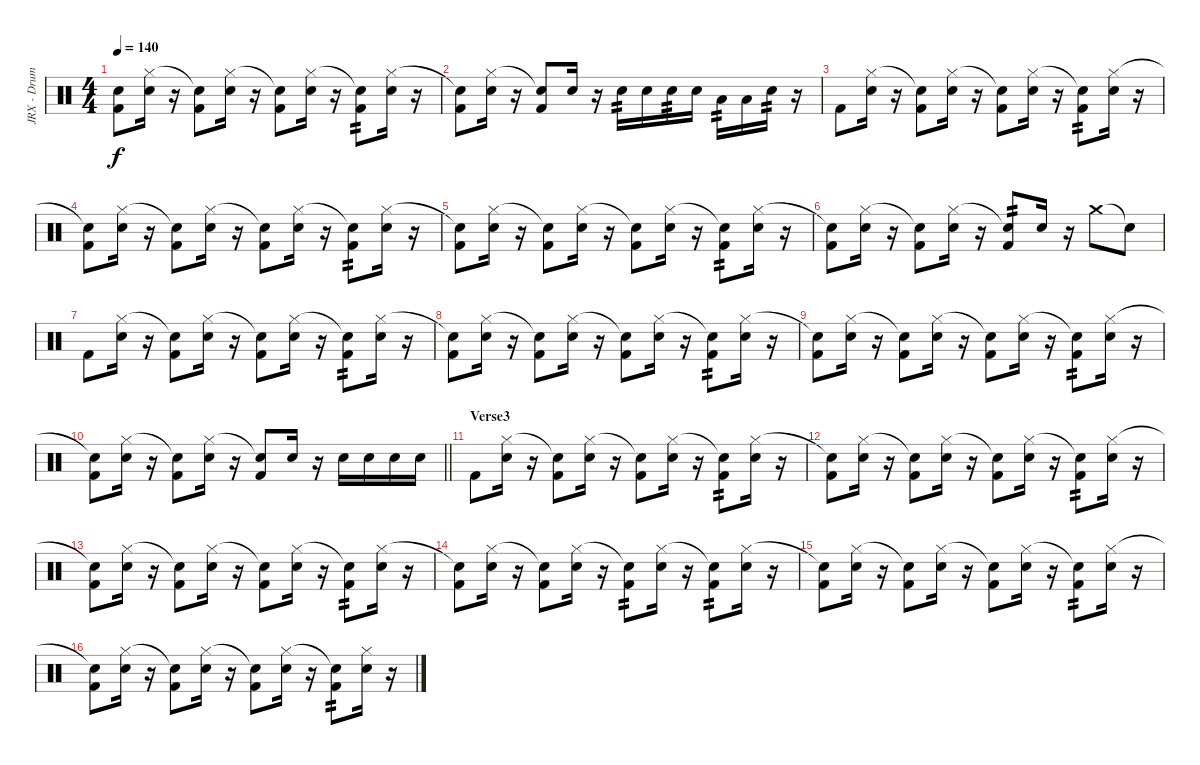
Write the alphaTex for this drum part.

\track ("JRX - Drum" "JRX - Drum") {instrument percussion}
\staff {score}
\articulation defaults
\ts (4 4)
\tempo 140
\clef neutral
\ks c
("Snare (hit)"{t} "Kick (hit) 2").8{dy f} ("Hi-Hat (closed)" "Electric Snare (hit)").16 r.16 ("Snare (hit)"{t} "Kick (hit) 2").8 ("Hi-Hat (closed)" "Electric Snare (hit)").16 r.16 ("Snare (hit)"{t} "Kick (hit) 2").8 ("Hi-Hat (closed)" "Electric Snare (hit)").16 r.16 ("Snare (hit)"{t} "Kick (hit) 2").8{tp 2} ("Hi-Hat (closed)" "Electric Snare (hit)").16 r.16 |
("Snare (hit)"{t} "Kick (hit) 2").8 ("Hi-Hat (closed)" "Electric Snare (hit)").16 r.16 ("Snare (hit)"{t} "Kick (hit) 2").8 "Electric Snare (hit)".16 r.16 "Electric Snare (hit)".16{tp 2} "Electric Snare (hit)".16 "Electric Snare (hit)".16{tp 2} "Electric Snare (hit)".16 "Low Floor Tom (hit)".16{tp 2} "Low Floor Tom (hit)".16 "Electric Snare (hit)".16{tp 2} r.16 |
"Kick (hit) 2".8 ("Hi-Hat (closed)" "Electric Snare (hit)").16 r.16 ("Snare (hit)"{t} "Kick (hit) 2").8 ("Hi-Hat (closed)" "Electric Snare (hit)").16 r.16 ("Snare (hit)"{t} "Kick (hit) 2").8 ("Hi-Hat (closed)" "Electric Snare (hit)").16 r.16 ("Snare (hit)"{t} "Kick (hit) 2").8{tp 2} ("Hi-Hat (closed)" "Electric Snare (hit)").16 r.16 |
("Snare (hit)"{t} "Kick (hit) 2").8 ("Hi-Hat (closed)" "Electric Snare (hit)").16 r.16 ("Snare (hit)"{t} "Kick (hit) 2").8 ("Hi-Hat (closed)" "Electric Snare (hit)").16 r.16 ("Snare (hit)"{t} "Kick (hit) 2").8 ("Hi-Hat (closed)" "Electric Snare (hit)").16 r.16 ("Snare (hit)"{t} "Kick (hit) 2").8{tp 2} ("Hi-Hat (closed)" "Electric Snare (hit)").16 r.16 |
("Snare (hit)"{t} "Kick (hit) 2").8 ("Hi-Hat (closed)" "Electric Snare (hit)").16 r.16 ("Snare (hit)"{t} "Kick (hit) 2").8 ("Hi-Hat (closed)" "Electric Snare (hit)").16 r.16 ("Snare (hit)"{t} "Kick (hit) 2").8 ("Hi-Hat (closed)" "Electric Snare (hit)").16 r.16 ("Snare (hit)"{t} "Kick (hit) 2").8{tp 2} ("Hi-Hat (closed)" "Electric Snare (hit)").16 r.16 |
("Snare (hit)"{t} "Kick (hit) 2").8 ("Hi-Hat (closed)" "Electric Snare (hit)").16 r.16 ("Snare (hit)"{t} "Kick (hit) 2").8 ("Hi-Hat (closed)" "Electric Snare (hit)").16 r.16 ("Snare (hit)"{t} "Kick (hit) 2").8{tp 2} "Electric Snare (hit)".16 r.16 "Crash medium (hit)".8 "Snare (hit)"{t}.8 |
"Kick (hit) 2".8 ("Hi-Hat (closed)" "Electric Snare (hit)").16 r.16 ("Snare (hit)"{t} "Kick (hit) 2").8 ("Hi-Hat (closed)" "Electric Snare (hit)").16 r.16 ("Snare (hit)"{t} "Kick (hit) 2").8 ("Hi-Hat (closed)" "Electric Snare (hit)").16 r.16 ("Snare (hit)"{t} "Kick (hit) 2").8{tp 2} ("Hi-Hat (closed)" "Electric Snare (hit)").16 r.16 |
("Snare (hit)"{t} "Kick (hit) 2").8 ("Hi-Hat (closed)" "Electric Snare (hit)").16 r.16 ("Snare (hit)"{t} "Kick (hit) 2").8 ("Hi-Hat (closed)" "Electric Snare (hit)").16 r.16 ("Snare (hit)"{t} "Kick (hit) 2").8 ("Hi-Hat (closed)" "Electric Snare (hit)").16 r.16 ("Snare (hit)"{t} "Kick (hit) 2").8{tp 2} ("Hi-Hat (closed)" "Electric Snare (hit)").16 r.16 |
("Snare (hit)"{t} "Kick (hit) 2").8 ("Hi-Hat (closed)" "Electric Snare (hit)").16 r.16 ("Snare (hit)"{t} "Kick (hit) 2").8 ("Hi-Hat (closed)" "Electric Snare (hit)").16 r.16 ("Snare (hit)"{t} "Kick (hit) 2").8 ("Hi-Hat (closed)" "Electric Snare (hit)").16 r.16 ("Snare (hit)"{t} "Kick (hit) 2").8{tp 2} ("Hi-Hat (closed)" "Electric Snare (hit)").16 r.16 |
\barLineRight lightlight
("Snare (hit)"{t} "Kick (hit) 2").8 ("Hi-Hat (closed)" "Electric Snare (hit)").16 r.16 ("Snare (hit)"{t} "Kick (hit) 2").8 ("Hi-Hat (closed)" "Electric Snare (hit)").16 r.16 ("Snare (hit)"{t} "Kick (hit) 2").8 "Electric Snare (hit)".16 r.16 "Electric Snare (hit)".16 "Electric Snare (hit)".16 "Electric Snare (hit)".16 "Electric Snare (hit)".16 |
\section ("" "Verse3")
"Kick (hit) 2".8 ("Hi-Hat (closed)" "Electric Snare (hit)").16 r.16 ("Snare (hit)"{t} "Kick (hit) 2").8 ("Hi-Hat (closed)" "Electric Snare (hit)").16 r.16 ("Snare (hit)"{t} "Kick (hit) 2").8 ("Hi-Hat (closed)" "Electric Snare (hit)").16 r.16 ("Snare (hit)"{t} "Kick (hit) 2").8{tp 2} ("Hi-Hat (closed)" "Electric Snare (hit)").16 r.16 |
("Snare (hit)"{t} "Kick (hit) 2").8 ("Hi-Hat (closed)" "Electric Snare (hit)").16 r.16 ("Snare (hit)"{t} "Kick (hit) 2").8 ("Hi-Hat (closed)" "Electric Snare (hit)").16 r.16 ("Snare (hit)"{t} "Kick (hit) 2").8 ("Hi-Hat (closed)" "Electric Snare (hit)").16 r.16 ("Snare (hit)"{t} "Kick (hit) 2").8{tp 2} ("Hi-Hat (closed)" "Electric Snare (hit)").16 r.16 |
("Snare (hit)"{t} "Kick (hit) 2").8 ("Hi-Hat (closed)" "Electric Snare (hit)").16 r.16 ("Snare (hit)"{t} "Kick (hit) 2").8 ("Hi-Hat (closed)" "Electric Snare (hit)").16 r.16 ("Snare (hit)"{t} "Kick (hit) 2").8 ("Hi-Hat (closed)" "Electric Snare (hit)").16 r.16 ("Snare (hit)"{t} "Kick (hit) 2").8{tp 2} ("Hi-Hat (closed)" "Electric Snare (hit)").16 r.16 |
("Snare (hit)"{t} "Kick (hit) 2").8 ("Hi-Hat (closed)" "Electric Snare (hit)").16 r.16 ("Snare (hit)"{t} "Kick (hit) 2").8 ("Hi-Hat (closed)" "Electric Snare (hit)").16 r.16 ("Snare (hit)"{t} "Kick (hit) 2").8{tp 2} ("Hi-Hat (closed)" "Electric Snare (hit)").16 r.16 ("Snare (hit)"{t} "Kick (hit) 2").8{tp 2} ("Hi-Hat (closed)" "Electric Snare (hit)").16 r.16 |
("Snare (hit)"{t} "Kick (hit) 2").8 ("Hi-Hat (closed)" "Electric Snare (hit)").16 r.16 ("Snare (hit)"{t} "Kick (hit) 2").8 ("Hi-Hat (closed)" "Electric Snare (hit)").16 r.16 ("Snare (hit)"{t} "Kick (hit) 2").8 ("Hi-Hat (closed)" "Electric Snare (hit)").16 r.16 ("Snare (hit)"{t} "Kick (hit) 2").8{tp 2} ("Hi-Hat (closed)" "Electric Snare (hit)").16 r.16 |
("Snare (hit)"{t} "Kick (hit) 2").8 ("Hi-Hat (closed)" "Electric Snare (hit)").16 r.16 ("Snare (hit)"{t} "Kick (hit) 2").8 ("Hi-Hat (closed)" "Electric Snare (hit)").16 r.16 ("Snare (hit)"{t} "Kick (hit) 2").8 ("Hi-Hat (closed)" "Electric Snare (hit)").16 r.16 ("Snare (hit)"{t} "Kick (hit) 2").8{tp 2} ("Hi-Hat (closed)" "Electric Snare (hit)").16 r.16
